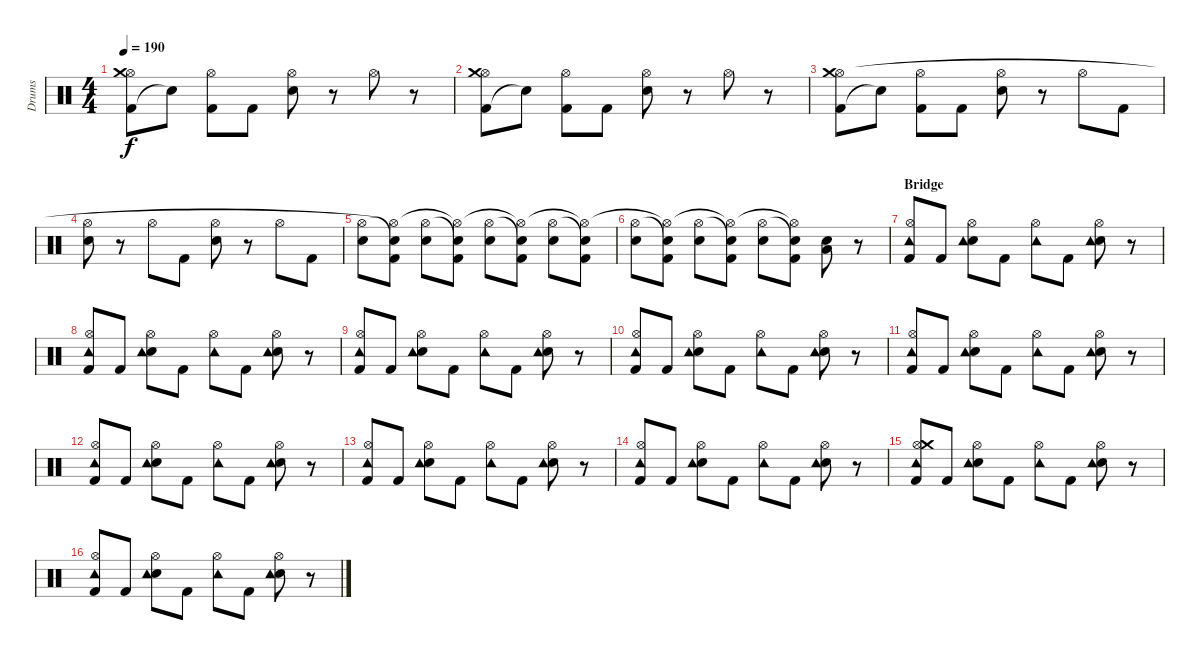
\track ("Drums" "Drums") {instrument percussion}
\staff {score}
\articulation defaults
\ts (4 4)
\tempo 190
\clef neutral
\ks c
("Kick (hit) 2" "Hi-Hat (open)" "Crash medium (hit)").8{dy f} "Snare (hit)"{t}.8 ("Kick (hit) 2" "Hi-Hat (open)").8 "Kick (hit) 2".8 ("Electric Snare (hit)" "Hi-Hat (open)").8 r.8 "Hi-Hat (open)".8 r.8 |
("Kick (hit) 2" "Hi-Hat (open)" "Crash medium (hit)").8 "Snare (hit)"{t}.8 ("Kick (hit) 2" "Hi-Hat (open)").8 "Kick (hit) 2".8 ("Electric Snare (hit)" "Hi-Hat (open)").8 r.8 "Hi-Hat (open)".8 r.8 |
("Kick (hit) 2" "Hi-Hat (open)" "Crash medium (hit)").8 "Snare (hit)"{t}.8 ("Kick (hit) 2" "Hi-Hat (open)").8 "Kick (hit) 2".8 ("Electric Snare (hit)" "Hi-Hat (open)").8 r.8 "Hi-Hat (open)".8 "Kick (hit) 2".8 |
("Electric Snare (hit)" "Hi-Hat (open)").8 r.8 "Hi-Hat (open)".8 "Kick (hit) 2".8 ("Electric Snare (hit)" "Hi-Hat (open)").8 r.8 "Hi-Hat (open)".8 "Kick (hit) 2".8 |
("Electric Snare (hit)" "Hi-Hat (open)").8 ("Kick (hit) 2" "Electric Snare (hit)"{t} "Hi-Hat (open)"{t}).8 ("Electric Snare (hit)" "Hi-Hat (open)").8 ("Kick (hit) 2" "Electric Snare (hit)"{t} "Hi-Hat (open)"{t}).8 ("Electric Snare (hit)" "Hi-Hat (open)").8 ("Kick (hit) 2" "Electric Snare (hit)"{t} "Hi-Hat (open)"{t}).8 ("Electric Snare (hit)" "Hi-Hat (open)").8 ("Kick (hit) 2" "Electric Snare (hit)"{t} "Hi-Hat (open)"{t}).8 |
("Electric Snare (hit)" "Hi-Hat (open)").8 ("Kick (hit) 2" "Electric Snare (hit)"{t} "Hi-Hat (open)"{t}).8 ("Electric Snare (hit)" "Hi-Hat (open)").8 ("Kick (hit) 2" "Electric Snare (hit)"{t} "Hi-Hat (open)"{t}).8 ("Electric Snare (hit)" "Hi-Hat (open)").8 ("Kick (hit) 2" "Electric Snare (hit)"{t} "Hi-Hat (open)"{t}).8 ("Electric Snare (hit)" "Low Tom (hit)").8 r.8 |
\section ("" "Bridge")
("Kick (hit) 2" "Hi-Hat (open)" "Tambourine (hit)").8 "Kick (hit) 2".8 ("Electric Snare (hit)" "Hi-Hat (open)" "Tambourine (hit)").8 "Kick (hit) 2".8 ("Hi-Hat (open)" "Tambourine (hit)").8 "Kick (hit) 2".8 ("Electric Snare (hit)" "Hi-Hat (open)" "Tambourine (hit)").8 r.8 |
("Kick (hit) 2" "Hi-Hat (open)" "Tambourine (hit)").8 "Kick (hit) 2".8 ("Electric Snare (hit)" "Hi-Hat (open)" "Tambourine (hit)").8 "Kick (hit) 2".8 ("Hi-Hat (open)" "Tambourine (hit)").8 "Kick (hit) 2".8 ("Electric Snare (hit)" "Hi-Hat (open)" "Tambourine (hit)").8 r.8 |
("Kick (hit) 2" "Hi-Hat (open)" "Tambourine (hit)").8 "Kick (hit) 2".8 ("Electric Snare (hit)" "Hi-Hat (open)" "Tambourine (hit)").8 "Kick (hit) 2".8 ("Hi-Hat (open)" "Tambourine (hit)").8 "Kick (hit) 2".8 ("Electric Snare (hit)" "Hi-Hat (open)" "Tambourine (hit)").8 r.8 |
("Kick (hit) 2" "Hi-Hat (open)" "Tambourine (hit)").8 "Kick (hit) 2".8 ("Electric Snare (hit)" "Hi-Hat (open)" "Tambourine (hit)").8 "Kick (hit) 2".8 ("Hi-Hat (open)" "Tambourine (hit)").8 "Kick (hit) 2".8 ("Electric Snare (hit)" "Hi-Hat (open)" "Tambourine (hit)").8 r.8 |
("Kick (hit) 2" "Hi-Hat (open)" "Tambourine (hit)").8 "Kick (hit) 2".8 ("Electric Snare (hit)" "Hi-Hat (open)" "Tambourine (hit)").8 "Kick (hit) 2".8 ("Hi-Hat (open)" "Tambourine (hit)").8 "Kick (hit) 2".8 ("Electric Snare (hit)" "Hi-Hat (open)" "Tambourine (hit)").8 r.8 |
("Kick (hit) 2" "Hi-Hat (open)" "Tambourine (hit)").8 "Kick (hit) 2".8 ("Electric Snare (hit)" "Hi-Hat (open)" "Tambourine (hit)").8 "Kick (hit) 2".8 ("Hi-Hat (open)" "Tambourine (hit)").8 "Kick (hit) 2".8 ("Electric Snare (hit)" "Hi-Hat (open)" "Tambourine (hit)").8 r.8 |
("Kick (hit) 2" "Hi-Hat (open)" "Tambourine (hit)").8 "Kick (hit) 2".8 ("Electric Snare (hit)" "Hi-Hat (open)" "Tambourine (hit)").8 "Kick (hit) 2".8 ("Hi-Hat (open)" "Tambourine (hit)").8 "Kick (hit) 2".8 ("Electric Snare (hit)" "Hi-Hat (open)" "Tambourine (hit)").8 r.8 |
("Kick (hit) 2" "Hi-Hat (open)" "Tambourine (hit)").8 "Kick (hit) 2".8 ("Electric Snare (hit)" "Hi-Hat (open)" "Tambourine (hit)").8 "Kick (hit) 2".8 ("Hi-Hat (open)" "Tambourine (hit)").8 "Kick (hit) 2".8 ("Electric Snare (hit)" "Hi-Hat (open)" "Tambourine (hit)").8 r.8 |
("Kick (hit) 2" "Hi-Hat (open)" "Crash medium (hit)" "Tambourine (hit)").8 "Kick (hit) 2".8 ("Electric Snare (hit)" "Hi-Hat (open)" "Tambourine (hit)").8 "Kick (hit) 2".8 ("Hi-Hat (open)" "Tambourine (hit)").8 "Kick (hit) 2".8 ("Electric Snare (hit)" "Hi-Hat (open)" "Tambourine (hit)").8 r.8 |
("Kick (hit) 2" "Hi-Hat (open)" "Tambourine (hit)").8 "Kick (hit) 2".8 ("Electric Snare (hit)" "Hi-Hat (open)" "Tambourine (hit)").8 "Kick (hit) 2".8 ("Hi-Hat (open)" "Tambourine (hit)").8 "Kick (hit) 2".8 ("Electric Snare (hit)" "Hi-Hat (open)" "Tambourine (hit)").8 r.8
